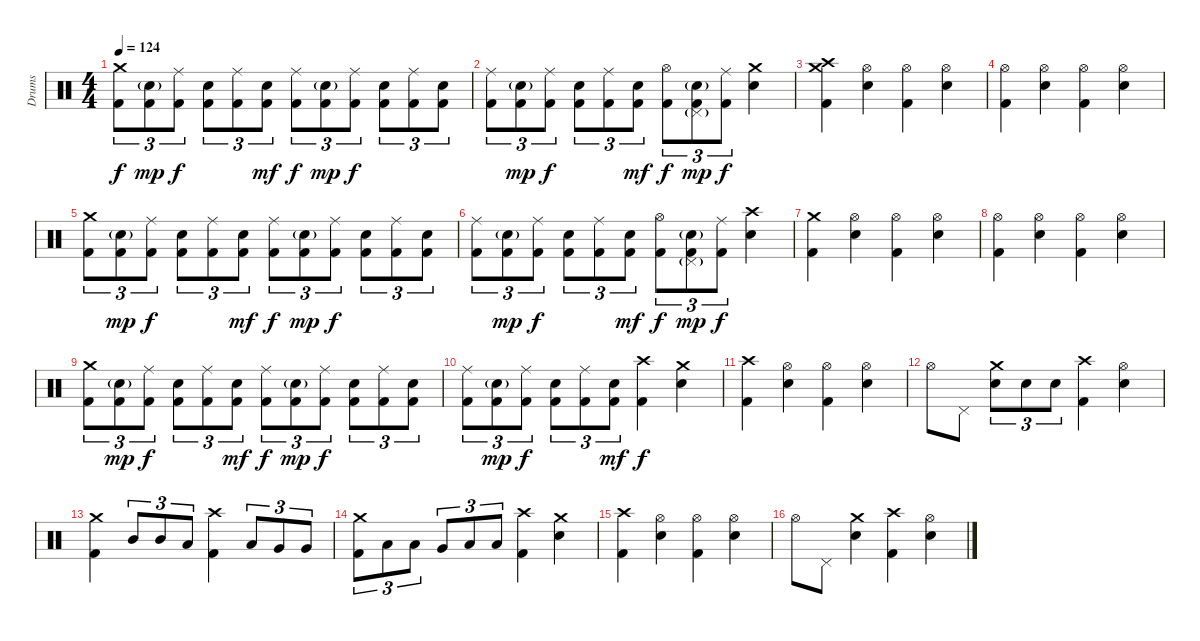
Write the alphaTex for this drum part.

\track ("Drums" "Drums") {instrument percussion}
\staff {score}
\articulation defaults
\ts (4 4)
\tempo 124
\clef neutral
\ks c
("Crash medium (hit)" "Kick (hit) 2").8{tu (3 2) dy f} ("Snare (hit) 2"{g} "Kick (hit) 2").8{tu (3 2) dy mp} ("Ride (middle)" "Kick (hit) 2").8{tu (3 2) dy f} ("Snare (hit) 2" "Kick (hit) 2").8{tu (3 2)} ("Ride (middle)" "Kick (hit) 2").8{tu (3 2)} ("Snare (hit) 2" "Kick (hit) 2").8{tu (3 2) dy mf} ("Ride (middle)" "Kick (hit) 2").8{tu (3 2) dy f} ("Snare (hit) 2"{g} "Kick (hit) 2").8{tu (3 2) dy mp} ("Ride (middle)" "Kick (hit) 2").8{tu (3 2) dy f} ("Snare (hit) 2" "Kick (hit) 2").8{tu (3 2)} ("Ride (middle)" "Kick (hit) 2").8{tu (3 2)} ("Snare (hit) 2" "Kick (hit) 2").8{tu (3 2)} |
("Ride (middle)" "Kick (hit) 2").8{tu (3 2)} ("Snare (hit) 2"{g} "Kick (hit) 2").8{tu (3 2) dy mp} ("Ride (middle)" "Kick (hit) 2").8{tu (3 2) dy f} ("Snare (hit) 2" "Kick (hit) 2").8{tu (3 2)} ("Ride (middle)" "Kick (hit) 2").8{tu (3 2)} ("Snare (hit) 2" "Kick (hit) 2").8{tu (3 2) dy mf} ("Hi-Hat (open)" "Kick (hit) 2").8{tu (3 2) dy f} ("Pedal Hi-Hat (hit)"{g} "Snare (hit) 2"{g} "Kick (hit) 2").8{tu (3 2) dy mp} ("Ride (middle)" "Kick (hit) 2").8{tu (3 2) dy f} ("Crash medium (hit)" "Snare (hit) 2").4 |
("Crash medium (hit)" "Crash high (hit)" "Kick (hit) 2").4 ("Hi-Hat (open)" "Snare (hit) 2").4 ("Hi-Hat (open)" "Kick (hit) 2").4 ("Hi-Hat (open)" "Snare (hit) 2").4 |
("Hi-Hat (open)" "Kick (hit) 2").4 ("Hi-Hat (open)" "Snare (hit) 2").4 ("Hi-Hat (open)" "Kick (hit) 2").4 ("Hi-Hat (open)" "Snare (hit) 2").4 |
("Crash medium (hit)" "Kick (hit) 2").8{tu (3 2)} ("Snare (hit) 2"{g} "Kick (hit) 2").8{tu (3 2) dy mp} ("Ride (middle)" "Kick (hit) 2").8{tu (3 2) dy f} ("Snare (hit) 2" "Kick (hit) 2").8{tu (3 2)} ("Ride (middle)" "Kick (hit) 2").8{tu (3 2)} ("Snare (hit) 2" "Kick (hit) 2").8{tu (3 2) dy mf} ("Ride (middle)" "Kick (hit) 2").8{tu (3 2) dy f} ("Snare (hit) 2"{g} "Kick (hit) 2").8{tu (3 2) dy mp} ("Ride (middle)" "Kick (hit) 2").8{tu (3 2) dy f} ("Snare (hit) 2" "Kick (hit) 2").8{tu (3 2)} ("Ride (middle)" "Kick (hit) 2").8{tu (3 2)} ("Snare (hit) 2" "Kick (hit) 2").8{tu (3 2)} |
("Ride (middle)" "Kick (hit) 2").8{tu (3 2)} ("Snare (hit) 2"{g} "Kick (hit) 2").8{tu (3 2) dy mp} ("Ride (middle)" "Kick (hit) 2").8{tu (3 2) dy f} ("Snare (hit) 2" "Kick (hit) 2").8{tu (3 2)} ("Ride (middle)" "Kick (hit) 2").8{tu (3 2)} ("Snare (hit) 2" "Kick (hit) 2").8{tu (3 2) dy mf} ("Hi-Hat (open)" "Kick (hit) 2").8{tu (3 2) dy f} ("Pedal Hi-Hat (hit)"{g} "Snare (hit) 2"{g} "Kick (hit) 2").8{tu (3 2) dy mp} ("Ride (middle)" "Kick (hit) 2").8{tu (3 2) dy f} ("Crash high (hit)" "Snare (hit) 2").4 |
("Crash medium (hit)" "Kick (hit) 2").4 ("Hi-Hat (open)" "Snare (hit) 2").4 ("Hi-Hat (open)" "Kick (hit) 2").4 ("Hi-Hat (open)" "Snare (hit) 2").4 |
("Hi-Hat (open)" "Kick (hit) 2").4 ("Hi-Hat (open)" "Snare (hit) 2").4 ("Hi-Hat (open)" "Kick (hit) 2").4 ("Hi-Hat (open)" "Snare (hit) 2").4 |
("Crash medium (hit)" "Kick (hit) 2").8{tu (3 2)} ("Snare (hit) 2"{g} "Kick (hit) 2").8{tu (3 2) dy mp} ("Ride (middle)" "Kick (hit) 2").8{tu (3 2) dy f} ("Snare (hit) 2" "Kick (hit) 2").8{tu (3 2)} ("Ride (middle)" "Kick (hit) 2").8{tu (3 2)} ("Snare (hit) 2" "Kick (hit) 2").8{tu (3 2) dy mf} ("Ride (middle)" "Kick (hit) 2").8{tu (3 2) dy f} ("Snare (hit) 2"{g} "Kick (hit) 2").8{tu (3 2) dy mp} ("Ride (middle)" "Kick (hit) 2").8{tu (3 2) dy f} ("Snare (hit) 2" "Kick (hit) 2").8{tu (3 2)} ("Ride (middle)" "Kick (hit) 2").8{tu (3 2)} ("Snare (hit) 2" "Kick (hit) 2").8{tu (3 2)} |
("Ride (middle)" "Kick (hit) 2").8{tu (3 2)} ("Snare (hit) 2"{g} "Kick (hit) 2").8{tu (3 2) dy mp} ("Ride (middle)" "Kick (hit) 2").8{tu (3 2) dy f} ("Snare (hit) 2" "Kick (hit) 2").8{tu (3 2)} ("Ride (middle)" "Kick (hit) 2").8{tu (3 2)} ("Snare (hit) 2" "Kick (hit) 2").8{tu (3 2) dy mf} ("Crash high (hit)" "Kick (hit) 2").4{dy f} ("Crash medium (hit)" "Snare (hit) 2").4 |
("Crash high (hit)" "Kick (hit) 2").4 ("Hi-Hat (open)" "Snare (hit) 2").4 ("Hi-Hat (open)" "Kick (hit) 2").4 ("Hi-Hat (open)" "Snare (hit) 2").4 |
"Hi-Hat (open)".8 "Pedal Hi-Hat (hit)".8 ("Crash medium (hit)" "Snare (hit) 2").8{tu (3 2)} "Snare (hit) 2".8{tu (3 2)} "Snare (hit) 2".8{tu (3 2)} ("Crash high (hit)" "Kick (hit) 2").4 ("Hi-Hat (open)" "Snare (hit) 2").4 |
("Crash medium (hit)" "Kick (hit) 2").4 "Mid Tom (hit)".8{tu (3 2)} "Mid Tom (hit)".8{tu (3 2)} "Low Tom (hit)".8{tu (3 2)} ("Crash high (hit)" "Kick (hit) 2").4 "Low Tom (hit)".8{tu (3 2)} "Very Low Tom (hit)".8{tu (3 2)} "Very Low Tom (hit)".8{tu (3 2)} |
("Crash medium (hit)" "Kick (hit) 2").8{tu (3 2)} "Low Tom (hit)".8{tu (3 2)} "Low Tom (hit)".8{tu (3 2)} "Very Low Tom (hit)".8{tu (3 2)} "Low Floor Tom (hit)".8{tu (3 2)} "Low Floor Tom (hit)".8{tu (3 2)} ("Crash high (hit)" "Kick (hit) 2").4 ("Crash medium (hit)" "Snare (hit) 2").4 |
("Crash high (hit)" "Kick (hit) 2").4 ("Hi-Hat (open)" "Snare (hit) 2").4 ("Hi-Hat (open)" "Kick (hit) 2").4 ("Hi-Hat (open)" "Snare (hit) 2").4 |
"Hi-Hat (open)".8 "Pedal Hi-Hat (hit)".8 ("Crash medium (hit)" "Snare (hit) 2").4 ("Crash high (hit)" "Kick (hit) 2").4 ("Hi-Hat (open)" "Snare (hit) 2").4
